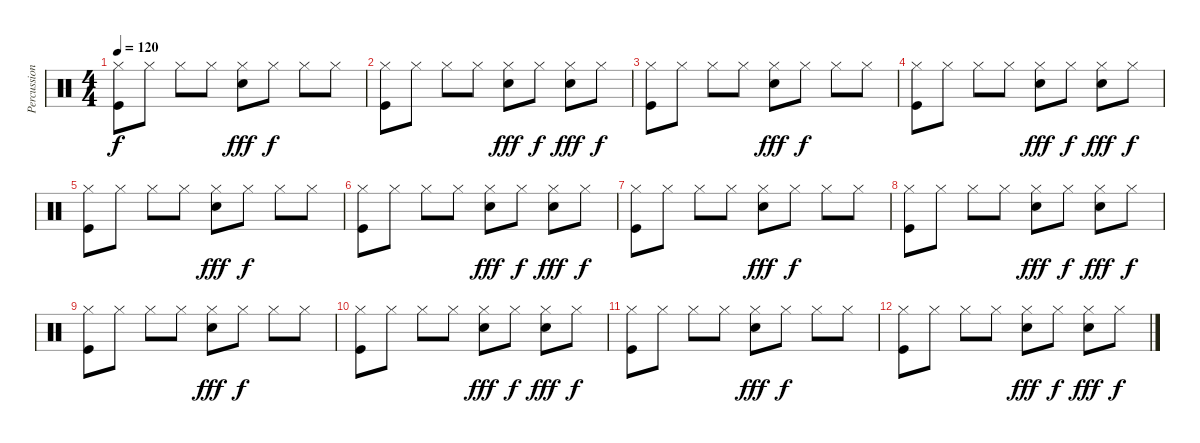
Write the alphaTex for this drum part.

\track ("Percussions" "Percussion") {instrument percussion}
\staff {score}
\articulation defaults
\ts (4 4)
\tempo 120
\clef neutral
\ks c
("Hi-Hat (closed)" "Kick (hit)").8{dy f} "Hi-Hat (closed)".8 "Hi-Hat (closed)".8 "Hi-Hat (closed)".8 ("Hi-Hat (closed)" "Snare (hit) 2").8{dy fff} "Hi-Hat (closed)".8{dy f} "Hi-Hat (closed)".8 "Hi-Hat (closed)".8 |
("Hi-Hat (closed)" "Kick (hit)").8 "Hi-Hat (closed)".8 "Hi-Hat (closed)".8 "Hi-Hat (closed)".8 ("Hi-Hat (closed)" "Snare (hit) 2").8{dy fff} "Hi-Hat (closed)".8{dy f} ("Hi-Hat (closed)" "Snare (hit) 2").8{dy fff} "Hi-Hat (closed)".8{dy f} |
("Hi-Hat (closed)" "Kick (hit)").8 "Hi-Hat (closed)".8 "Hi-Hat (closed)".8 "Hi-Hat (closed)".8 ("Hi-Hat (closed)" "Snare (hit) 2").8{dy fff} "Hi-Hat (closed)".8{dy f} "Hi-Hat (closed)".8 "Hi-Hat (closed)".8 |
("Hi-Hat (closed)" "Kick (hit)").8 "Hi-Hat (closed)".8 "Hi-Hat (closed)".8 "Hi-Hat (closed)".8 ("Hi-Hat (closed)" "Snare (hit) 2").8{dy fff} "Hi-Hat (closed)".8{dy f} ("Hi-Hat (closed)" "Snare (hit) 2").8{dy fff} "Hi-Hat (closed)".8{dy f} |
\section ("" "")
("Hi-Hat (closed)" "Kick (hit)").8 "Hi-Hat (closed)".8 "Hi-Hat (closed)".8 "Hi-Hat (closed)".8 ("Hi-Hat (closed)" "Snare (hit) 2").8{dy fff} "Hi-Hat (closed)".8{dy f} "Hi-Hat (closed)".8 "Hi-Hat (closed)".8 |
("Hi-Hat (closed)" "Kick (hit)").8 "Hi-Hat (closed)".8 "Hi-Hat (closed)".8 "Hi-Hat (closed)".8 ("Hi-Hat (closed)" "Snare (hit) 2").8{dy fff} "Hi-Hat (closed)".8{dy f} ("Hi-Hat (closed)" "Snare (hit) 2").8{dy fff} "Hi-Hat (closed)".8{dy f} |
("Hi-Hat (closed)" "Kick (hit)").8 "Hi-Hat (closed)".8 "Hi-Hat (closed)".8 "Hi-Hat (closed)".8 ("Hi-Hat (closed)" "Snare (hit) 2").8{dy fff} "Hi-Hat (closed)".8{dy f} "Hi-Hat (closed)".8 "Hi-Hat (closed)".8 |
("Hi-Hat (closed)" "Kick (hit)").8 "Hi-Hat (closed)".8 "Hi-Hat (closed)".8 "Hi-Hat (closed)".8 ("Hi-Hat (closed)" "Snare (hit) 2").8{dy fff} "Hi-Hat (closed)".8{dy f} ("Hi-Hat (closed)" "Snare (hit) 2").8{dy fff} "Hi-Hat (closed)".8{dy f} |
("Hi-Hat (closed)" "Kick (hit)").8 "Hi-Hat (closed)".8 "Hi-Hat (closed)".8 "Hi-Hat (closed)".8 ("Hi-Hat (closed)" "Snare (hit) 2").8{dy fff} "Hi-Hat (closed)".8{dy f} "Hi-Hat (closed)".8 "Hi-Hat (closed)".8 |
("Hi-Hat (closed)" "Kick (hit)").8 "Hi-Hat (closed)".8 "Hi-Hat (closed)".8 "Hi-Hat (closed)".8 ("Hi-Hat (closed)" "Snare (hit) 2").8{dy fff} "Hi-Hat (closed)".8{dy f} ("Hi-Hat (closed)" "Snare (hit) 2").8{dy fff} "Hi-Hat (closed)".8{dy f} |
("Hi-Hat (closed)" "Kick (hit)").8 "Hi-Hat (closed)".8 "Hi-Hat (closed)".8 "Hi-Hat (closed)".8 ("Hi-Hat (closed)" "Snare (hit) 2").8{dy fff} "Hi-Hat (closed)".8{dy f} "Hi-Hat (closed)".8 "Hi-Hat (closed)".8 |
("Hi-Hat (closed)" "Kick (hit)").8 "Hi-Hat (closed)".8 "Hi-Hat (closed)".8 "Hi-Hat (closed)".8 ("Hi-Hat (closed)" "Snare (hit) 2").8{dy fff} "Hi-Hat (closed)".8{dy f} ("Hi-Hat (closed)" "Snare (hit) 2").8{dy fff} "Hi-Hat (closed)".8{dy f}
